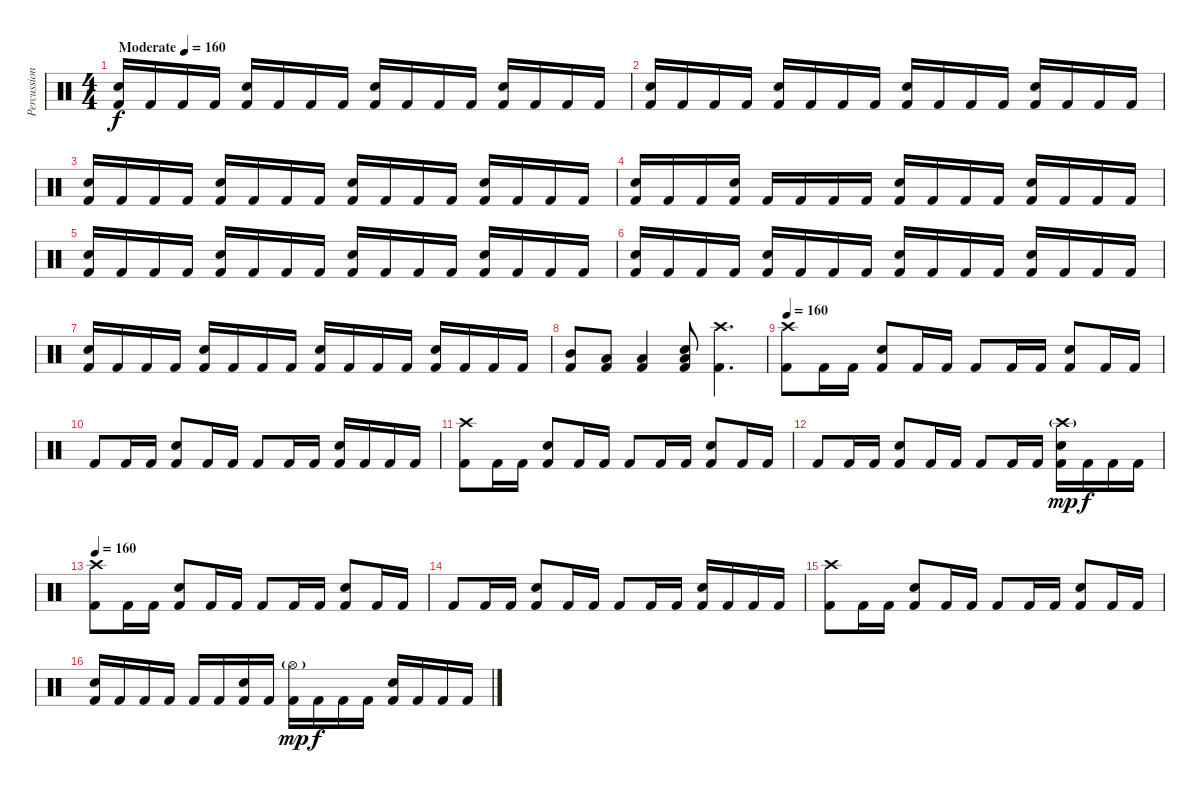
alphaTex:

\track ("Percussion" "Percussion") {instrument percussion}
\staff {score}
\articulation defaults
\ts (4 4)
\tempo (160 "Moderate")
\clef neutral
\ks c
("Kick (hit) 2" "Snare (hit) 2").16{dy f} "Kick (hit) 2".16 "Kick (hit) 2".16 "Kick (hit) 2".16 ("Kick (hit) 2" "Snare (hit) 2").16 "Kick (hit) 2".16 "Kick (hit) 2".16 "Kick (hit) 2".16 ("Kick (hit) 2" "Snare (hit) 2").16 "Kick (hit) 2".16 "Kick (hit) 2".16 "Kick (hit) 2".16 ("Kick (hit) 2" "Snare (hit) 2").16 "Kick (hit) 2".16 "Kick (hit) 2".16 "Kick (hit) 2".16 |
("Kick (hit) 2" "Snare (hit) 2").16 "Kick (hit) 2".16 "Kick (hit) 2".16 "Kick (hit) 2".16 ("Kick (hit) 2" "Snare (hit) 2").16 "Kick (hit) 2".16 "Kick (hit) 2".16 "Kick (hit) 2".16 ("Kick (hit) 2" "Snare (hit) 2").16 "Kick (hit) 2".16 "Kick (hit) 2".16 "Kick (hit) 2".16 ("Kick (hit) 2" "Snare (hit) 2").16 "Kick (hit) 2".16 "Kick (hit) 2".16 "Kick (hit) 2".16 |
("Kick (hit) 2" "Snare (hit) 2").16 "Kick (hit) 2".16 "Kick (hit) 2".16 "Kick (hit) 2".16 ("Kick (hit) 2" "Snare (hit) 2").16 "Kick (hit) 2".16 "Kick (hit) 2".16 "Kick (hit) 2".16 ("Kick (hit) 2" "Snare (hit) 2").16 "Kick (hit) 2".16 "Kick (hit) 2".16 "Kick (hit) 2".16 ("Kick (hit) 2" "Snare (hit) 2").16 "Kick (hit) 2".16 "Kick (hit) 2".16 "Kick (hit) 2".16 |
("Kick (hit) 2" "Snare (hit) 2").16 "Kick (hit) 2".16 "Kick (hit) 2".16 ("Kick (hit) 2" "Snare (hit) 2").16 "Kick (hit) 2".16 "Kick (hit) 2".16 "Kick (hit) 2".16 "Kick (hit) 2".16 ("Kick (hit) 2" "Snare (hit) 2").16 "Kick (hit) 2".16 "Kick (hit) 2".16 "Kick (hit) 2".16 ("Kick (hit) 2" "Snare (hit) 2").16 "Kick (hit) 2".16 "Kick (hit) 2".16 "Kick (hit) 2".16 |
("Kick (hit) 2" "Snare (hit) 2").16 "Kick (hit) 2".16 "Kick (hit) 2".16 "Kick (hit) 2".16 ("Kick (hit) 2" "Snare (hit) 2").16 "Kick (hit) 2".16 "Kick (hit) 2".16 "Kick (hit) 2".16 ("Kick (hit) 2" "Snare (hit) 2").16 "Kick (hit) 2".16 "Kick (hit) 2".16 "Kick (hit) 2".16 ("Kick (hit) 2" "Snare (hit) 2").16 "Kick (hit) 2".16 "Kick (hit) 2".16 "Kick (hit) 2".16 |
("Kick (hit) 2" "Snare (hit) 2").16 "Kick (hit) 2".16 "Kick (hit) 2".16 "Kick (hit) 2".16 ("Kick (hit) 2" "Snare (hit) 2").16 "Kick (hit) 2".16 "Kick (hit) 2".16 "Kick (hit) 2".16 ("Kick (hit) 2" "Snare (hit) 2").16 "Kick (hit) 2".16 "Kick (hit) 2".16 "Kick (hit) 2".16 ("Kick (hit) 2" "Snare (hit) 2").16 "Kick (hit) 2".16 "Kick (hit) 2".16 "Kick (hit) 2".16 |
("Kick (hit) 2" "Snare (hit) 2").16 "Kick (hit) 2".16 "Kick (hit) 2".16 "Kick (hit) 2".16 ("Kick (hit) 2" "Snare (hit) 2").16 "Kick (hit) 2".16 "Kick (hit) 2".16 "Kick (hit) 2".16 ("Kick (hit) 2" "Snare (hit) 2").16 "Kick (hit) 2".16 "Kick (hit) 2".16 "Kick (hit) 2".16 ("Kick (hit) 2" "Snare (hit) 2").16 "Kick (hit) 2".16 "Kick (hit) 2".16 "Kick (hit) 2".16 |
("Kick (hit) 2" "Mid Tom (hit)").8 ("Kick (hit) 2" "Low Tom (hit)").8 ("Kick (hit) 2" "Low Floor Tom (hit)").4 ("Kick (hit) 2" "Low Tom (hit)" "Snare (hit) 2").8 ("Kick (hit) 2" "Crash high (hit)").4{d} |
\tempo 160
("Kick (hit) 2" "Crash high (hit)").8 "Kick (hit) 2".16 "Kick (hit) 2".16 ("Kick (hit) 2" "Snare (hit) 2").8 "Kick (hit) 2".16 "Kick (hit) 2".16 "Kick (hit) 2".8 "Kick (hit) 2".16 "Kick (hit) 2".16 ("Kick (hit) 2" "Snare (hit) 2").8 "Kick (hit) 2".16 "Kick (hit) 2".16 |
"Kick (hit) 2".8 "Kick (hit) 2".16 "Kick (hit) 2".16 ("Kick (hit) 2" "Snare (hit) 2").8 "Kick (hit) 2".16 "Kick (hit) 2".16 "Kick (hit) 2".8 "Kick (hit) 2".16 "Kick (hit) 2".16 ("Kick (hit) 2" "Snare (hit) 2").16 "Kick (hit) 2".16 "Kick (hit) 2".16 "Kick (hit) 2".16 |
("Kick (hit) 2" "Crash high (hit)").8 "Kick (hit) 2".16 "Kick (hit) 2".16 ("Kick (hit) 2" "Snare (hit) 2").8 "Kick (hit) 2".16 "Kick (hit) 2".16 "Kick (hit) 2".8 "Kick (hit) 2".16 "Kick (hit) 2".16 ("Kick (hit) 2" "Snare (hit) 2").8 "Kick (hit) 2".16 "Kick (hit) 2".16 |
"Kick (hit) 2".8 "Kick (hit) 2".16 "Kick (hit) 2".16 ("Kick (hit) 2" "Snare (hit) 2").8 "Kick (hit) 2".16 "Kick (hit) 2".16 "Kick (hit) 2".8 "Kick (hit) 2".16 "Kick (hit) 2".16 ("Kick (hit) 2" "Snare (hit) 2" "Crash high (hit)"{g}).16{dy mp} "Kick (hit) 2".16{dy f} "Kick (hit) 2".16 "Kick (hit) 2".16 |
\tempo 160
("Kick (hit) 2" "Crash high (hit)").8 "Kick (hit) 2".16 "Kick (hit) 2".16 ("Kick (hit) 2" "Snare (hit) 2").8 "Kick (hit) 2".16 "Kick (hit) 2".16 "Kick (hit) 2".8 "Kick (hit) 2".16 "Kick (hit) 2".16 ("Kick (hit) 2" "Snare (hit) 2").8 "Kick (hit) 2".16 "Kick (hit) 2".16 |
"Kick (hit) 2".8 "Kick (hit) 2".16 "Kick (hit) 2".16 ("Kick (hit) 2" "Snare (hit) 2").8 "Kick (hit) 2".16 "Kick (hit) 2".16 "Kick (hit) 2".8 "Kick (hit) 2".16 "Kick (hit) 2".16 ("Kick (hit) 2" "Snare (hit) 2").16 "Kick (hit) 2".16 "Kick (hit) 2".16 "Kick (hit) 2".16 |
("Kick (hit) 2" "Crash high (hit)").8 "Kick (hit) 2".16 "Kick (hit) 2".16 ("Kick (hit) 2" "Snare (hit) 2").8 "Kick (hit) 2".16 "Kick (hit) 2".16 "Kick (hit) 2".8 "Kick (hit) 2".16 "Kick (hit) 2".16 ("Kick (hit) 2" "Snare (hit) 2").8 "Kick (hit) 2".16 "Kick (hit) 2".16 |
("Kick (hit) 2" "Snare (hit) 2").16 "Kick (hit) 2".16 "Kick (hit) 2".16 "Kick (hit) 2".16 "Kick (hit) 2".16 "Kick (hit) 2".16 ("Kick (hit) 2" "Snare (hit) 2").16 "Kick (hit) 2".16 ("Kick (hit) 2" "Hi-Hat (open)"{g}).16{dy mp} "Kick (hit) 2".16{dy f} "Kick (hit) 2".16 "Kick (hit) 2".16 ("Kick (hit) 2" "Snare (hit) 2").16 "Kick (hit) 2".16 "Kick (hit) 2".16 "Kick (hit) 2".16
